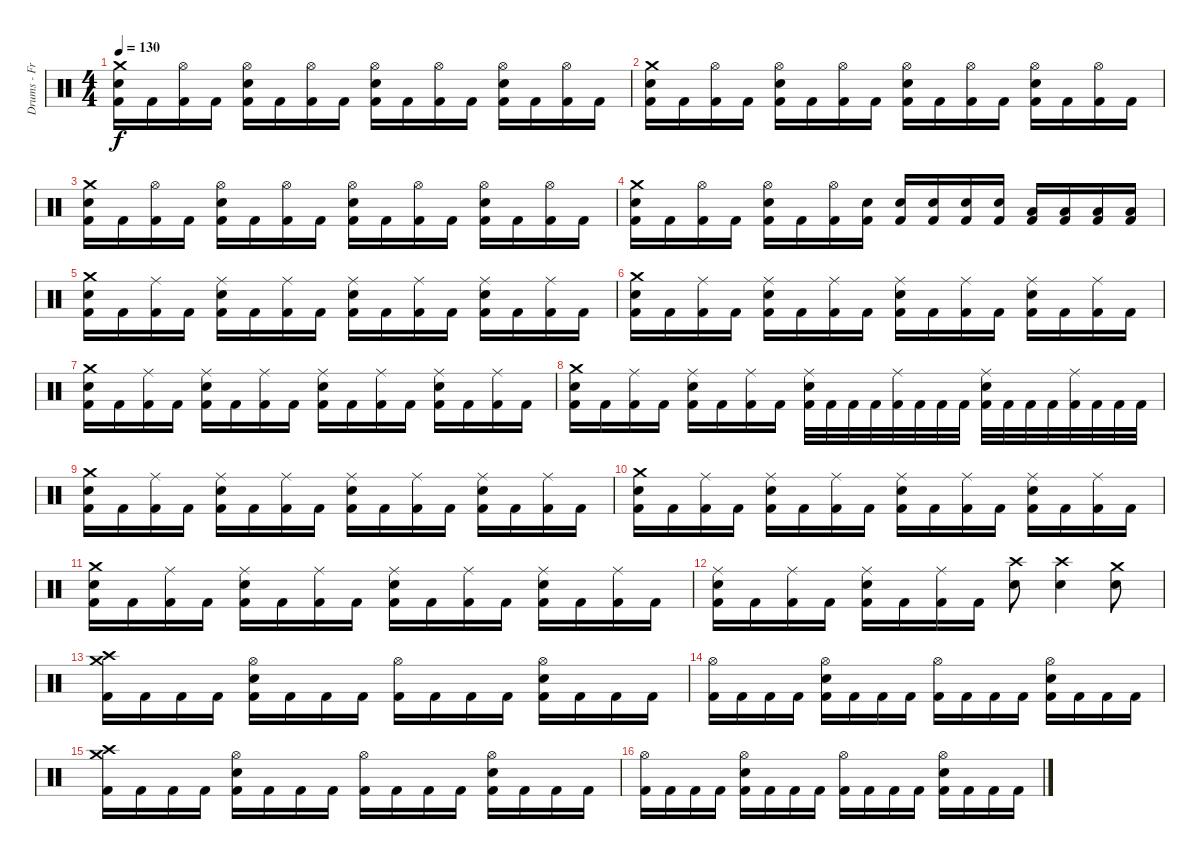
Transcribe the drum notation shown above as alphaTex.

\track ("Drums - Fredrik Andersson" "Drums - Fr") {instrument percussion}
\staff {score}
\articulation defaults
\ts (4 4)
\tempo 130
\clef neutral
\ks c
("Kick (hit) 2" "Snare (hit) 2" "Crash medium (hit)").16{dy f} "Kick (hit) 2".16 ("Kick (hit) 2" "Hi-Hat (open)").16 "Kick (hit) 2".16 ("Kick (hit) 2" "Snare (hit) 2" "Hi-Hat (open)").16 "Kick (hit) 2".16 ("Kick (hit) 2" "Hi-Hat (open)").16 "Kick (hit) 2".16 ("Kick (hit) 2" "Snare (hit) 2" "Hi-Hat (open)").16 "Kick (hit) 2".16 ("Kick (hit) 2" "Hi-Hat (open)").16 "Kick (hit) 2".16 ("Kick (hit) 2" "Snare (hit) 2" "Hi-Hat (open)").16 "Kick (hit) 2".16 ("Kick (hit) 2" "Hi-Hat (open)").16 "Kick (hit) 2".16 |
("Kick (hit) 2" "Snare (hit) 2" "Crash medium (hit)").16 "Kick (hit) 2".16 ("Kick (hit) 2" "Hi-Hat (open)").16 "Kick (hit) 2".16 ("Kick (hit) 2" "Snare (hit) 2" "Hi-Hat (open)").16 "Kick (hit) 2".16 ("Kick (hit) 2" "Hi-Hat (open)").16 "Kick (hit) 2".16 ("Kick (hit) 2" "Snare (hit) 2" "Hi-Hat (open)").16 "Kick (hit) 2".16 ("Kick (hit) 2" "Hi-Hat (open)").16 "Kick (hit) 2".16 ("Kick (hit) 2" "Snare (hit) 2" "Hi-Hat (open)").16 "Kick (hit) 2".16 ("Kick (hit) 2" "Hi-Hat (open)").16 "Kick (hit) 2".16 |
("Kick (hit) 2" "Snare (hit) 2" "Crash medium (hit)").16 "Kick (hit) 2".16 ("Kick (hit) 2" "Hi-Hat (open)").16 "Kick (hit) 2".16 ("Kick (hit) 2" "Snare (hit) 2" "Hi-Hat (open)").16 "Kick (hit) 2".16 ("Kick (hit) 2" "Hi-Hat (open)").16 "Kick (hit) 2".16 ("Kick (hit) 2" "Snare (hit) 2" "Hi-Hat (open)").16 "Kick (hit) 2".16 ("Kick (hit) 2" "Hi-Hat (open)").16 "Kick (hit) 2".16 ("Kick (hit) 2" "Snare (hit) 2" "Hi-Hat (open)").16 "Kick (hit) 2".16 ("Kick (hit) 2" "Hi-Hat (open)").16 "Kick (hit) 2".16 |
("Kick (hit) 2" "Snare (hit) 2" "Crash medium (hit)").16 "Kick (hit) 2".16 ("Kick (hit) 2" "Hi-Hat (open)").16 "Kick (hit) 2".16 ("Kick (hit) 2" "Snare (hit) 2" "Hi-Hat (open)").16 "Kick (hit) 2".16 ("Kick (hit) 2" "Hi-Hat (open)").16 ("Kick (hit) 2" "Snare (hit) 2").16 ("Kick (hit) 2" "Snare (hit) 2").16 ("Kick (hit) 2" "Snare (hit) 2").16 ("Kick (hit) 2" "Snare (hit) 2").16 ("Kick (hit) 2" "Snare (hit) 2").16 ("Kick (hit) 2" "Low Tom (hit)").16 ("Kick (hit) 2" "Low Tom (hit)").16 ("Kick (hit) 2" "Low Tom (hit)").16 ("Kick (hit) 2" "Low Tom (hit)").16 |
("Kick (hit) 2" "Snare (hit) 2" "Crash medium (hit)").16 "Kick (hit) 2".16 ("Kick (hit) 2" "Ride (middle)").16 "Kick (hit) 2".16 ("Kick (hit) 2" "Snare (hit) 2" "Ride (middle)").16 "Kick (hit) 2".16 ("Kick (hit) 2" "Ride (middle)").16 "Kick (hit) 2".16 ("Kick (hit) 2" "Snare (hit) 2" "Ride (middle)").16 "Kick (hit) 2".16 ("Kick (hit) 2" "Ride (middle)").16 "Kick (hit) 2".16 ("Kick (hit) 2" "Snare (hit) 2" "Ride (middle)").16 "Kick (hit) 2".16 ("Kick (hit) 2" "Ride (middle)").16 "Kick (hit) 2".16 |
("Kick (hit) 2" "Snare (hit) 2" "Crash medium (hit)").16 "Kick (hit) 2".16 ("Kick (hit) 2" "Ride (middle)").16 "Kick (hit) 2".16 ("Kick (hit) 2" "Snare (hit) 2" "Ride (middle)").16 "Kick (hit) 2".16 ("Kick (hit) 2" "Ride (middle)").16 "Kick (hit) 2".16 ("Kick (hit) 2" "Snare (hit) 2" "Ride (middle)").16 "Kick (hit) 2".16 ("Kick (hit) 2" "Ride (middle)").16 "Kick (hit) 2".16 ("Kick (hit) 2" "Snare (hit) 2" "Ride (middle)").16 "Kick (hit) 2".16 ("Kick (hit) 2" "Ride (middle)").16 "Kick (hit) 2".16 |
("Kick (hit) 2" "Snare (hit) 2" "Crash medium (hit)").16 "Kick (hit) 2".16 ("Kick (hit) 2" "Ride (middle)").16 "Kick (hit) 2".16 ("Kick (hit) 2" "Snare (hit) 2" "Ride (middle)").16 "Kick (hit) 2".16 ("Kick (hit) 2" "Ride (middle)").16 "Kick (hit) 2".16 ("Kick (hit) 2" "Snare (hit) 2" "Ride (middle)").16 "Kick (hit) 2".16 ("Kick (hit) 2" "Ride (middle)").16 "Kick (hit) 2".16 ("Kick (hit) 2" "Snare (hit) 2" "Ride (middle)").16 "Kick (hit) 2".16 ("Kick (hit) 2" "Ride (middle)").16 "Kick (hit) 2".16 |
("Kick (hit) 2" "Snare (hit) 2" "Crash medium (hit)").16 "Kick (hit) 2".16 ("Kick (hit) 2" "Ride (middle)").16 "Kick (hit) 2".16 ("Kick (hit) 2" "Snare (hit) 2" "Ride (middle)").16 "Kick (hit) 2".16 ("Kick (hit) 2" "Ride (middle)").16 "Kick (hit) 2".16 ("Kick (hit) 2" "Snare (hit) 2" "Ride (middle)").32 "Kick (hit) 2".32 "Kick (hit) 2".32 "Kick (hit) 2".32 ("Kick (hit) 2" "Ride (middle)").32 "Kick (hit) 2".32 "Kick (hit) 2".32 "Kick (hit) 2".32 ("Kick (hit) 2" "Snare (hit) 2" "Ride (middle)").32 "Kick (hit) 2".32 "Kick (hit) 2".32 "Kick (hit) 2".32 ("Kick (hit) 2" "Ride (middle)").32 "Kick (hit) 2".32 "Kick (hit) 2".32 "Kick (hit) 2".32 |
("Kick (hit) 2" "Snare (hit) 2" "Crash medium (hit)").16 "Kick (hit) 2".16 ("Kick (hit) 2" "Ride (middle)").16 "Kick (hit) 2".16 ("Kick (hit) 2" "Snare (hit) 2" "Ride (middle)").16 "Kick (hit) 2".16 ("Kick (hit) 2" "Ride (middle)").16 "Kick (hit) 2".16 ("Kick (hit) 2" "Snare (hit) 2" "Ride (middle)").16 "Kick (hit) 2".16 ("Kick (hit) 2" "Ride (middle)").16 "Kick (hit) 2".16 ("Kick (hit) 2" "Snare (hit) 2" "Ride (middle)").16 "Kick (hit) 2".16 ("Kick (hit) 2" "Ride (middle)").16 "Kick (hit) 2".16 |
("Kick (hit) 2" "Snare (hit) 2" "Crash medium (hit)").16 "Kick (hit) 2".16 ("Kick (hit) 2" "Ride (middle)").16 "Kick (hit) 2".16 ("Kick (hit) 2" "Snare (hit) 2" "Ride (middle)").16 "Kick (hit) 2".16 ("Kick (hit) 2" "Ride (middle)").16 "Kick (hit) 2".16 ("Kick (hit) 2" "Snare (hit) 2" "Ride (middle)").16 "Kick (hit) 2".16 ("Kick (hit) 2" "Ride (middle)").16 "Kick (hit) 2".16 ("Kick (hit) 2" "Snare (hit) 2" "Ride (middle)").16 "Kick (hit) 2".16 ("Kick (hit) 2" "Ride (middle)").16 "Kick (hit) 2".16 |
("Kick (hit) 2" "Snare (hit) 2" "Crash medium (hit)").16 "Kick (hit) 2".16 ("Kick (hit) 2" "Ride (middle)").16 "Kick (hit) 2".16 ("Kick (hit) 2" "Snare (hit) 2" "Ride (middle)").16 "Kick (hit) 2".16 ("Kick (hit) 2" "Ride (middle)").16 "Kick (hit) 2".16 ("Kick (hit) 2" "Snare (hit) 2" "Ride (middle)").16 "Kick (hit) 2".16 ("Kick (hit) 2" "Ride (middle)").16 "Kick (hit) 2".16 ("Kick (hit) 2" "Snare (hit) 2" "Ride (middle)").16 "Kick (hit) 2".16 ("Kick (hit) 2" "Ride (middle)").16 "Kick (hit) 2".16 |
("Kick (hit) 2" "Snare (hit) 2" "Ride (middle)").16 "Kick (hit) 2".16 ("Kick (hit) 2" "Ride (middle)").16 "Kick (hit) 2".16 ("Kick (hit) 2" "Snare (hit) 2" "Ride (middle)").16 "Kick (hit) 2".16 ("Kick (hit) 2" "Ride (middle)").16 "Kick (hit) 2".16 ("Crash high (hit)" "Snare (hit) 2").8 ("Crash high (hit)" "Snare (hit) 2").4 ("Crash medium (hit)" "Snare (hit) 2").8 |
("Kick (hit) 2" "Crash high (hit)" "Crash medium (hit)").16 "Kick (hit) 2".16 "Kick (hit) 2".16 "Kick (hit) 2".16 ("Kick (hit) 2" "Snare (hit) 2" "Hi-Hat (open)").16 "Kick (hit) 2".16 "Kick (hit) 2".16 "Kick (hit) 2".16 ("Kick (hit) 2" "Hi-Hat (open)").16 "Kick (hit) 2".16 "Kick (hit) 2".16 "Kick (hit) 2".16 ("Kick (hit) 2" "Snare (hit) 2" "Hi-Hat (open)").16 "Kick (hit) 2".16 "Kick (hit) 2".16 "Kick (hit) 2".16 |
("Kick (hit) 2" "Hi-Hat (open)").16 "Kick (hit) 2".16 "Kick (hit) 2".16 "Kick (hit) 2".16 ("Kick (hit) 2" "Snare (hit) 2" "Hi-Hat (open)").16 "Kick (hit) 2".16 "Kick (hit) 2".16 "Kick (hit) 2".16 ("Kick (hit) 2" "Hi-Hat (open)").16 "Kick (hit) 2".16 "Kick (hit) 2".16 "Kick (hit) 2".16 ("Kick (hit) 2" "Snare (hit) 2" "Hi-Hat (open)").16 "Kick (hit) 2".16 "Kick (hit) 2".16 "Kick (hit) 2".16 |
("Kick (hit) 2" "Crash high (hit)" "Crash medium (hit)").16 "Kick (hit) 2".16 "Kick (hit) 2".16 "Kick (hit) 2".16 ("Kick (hit) 2" "Snare (hit) 2" "Hi-Hat (open)").16 "Kick (hit) 2".16 "Kick (hit) 2".16 "Kick (hit) 2".16 ("Kick (hit) 2" "Hi-Hat (open)").16 "Kick (hit) 2".16 "Kick (hit) 2".16 "Kick (hit) 2".16 ("Kick (hit) 2" "Snare (hit) 2" "Hi-Hat (open)").16 "Kick (hit) 2".16 "Kick (hit) 2".16 "Kick (hit) 2".16 |
("Kick (hit) 2" "Hi-Hat (open)").16 "Kick (hit) 2".16 "Kick (hit) 2".16 "Kick (hit) 2".16 ("Kick (hit) 2" "Snare (hit) 2" "Hi-Hat (open)").16 "Kick (hit) 2".16 "Kick (hit) 2".16 "Kick (hit) 2".16 ("Kick (hit) 2" "Hi-Hat (open)").16 "Kick (hit) 2".16 "Kick (hit) 2".16 "Kick (hit) 2".16 ("Kick (hit) 2" "Snare (hit) 2" "Hi-Hat (open)").16 "Kick (hit) 2".16 "Kick (hit) 2".16 "Kick (hit) 2".16
